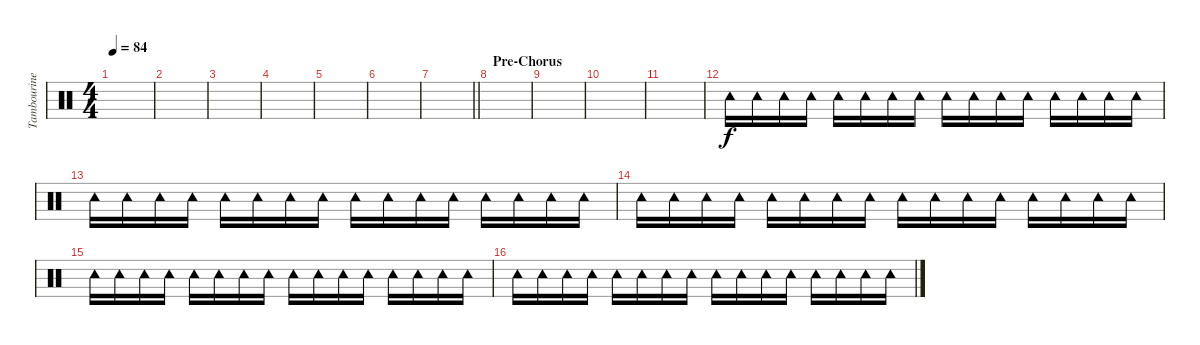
\track ("Tambourine" "Tambourine") {instrument percussion}
\staff {score}
\articulation defaults
\ts (4 4)
\tempo 84
\clef neutral
\ks c
|
|
|
|
|
|
\barLineRight lightlight
|
\section ("" "Pre-Chorus")
|
|
|
|
"Tambourine (hit)".16 "Tambourine (hit)".16 "Tambourine (hit)".16 "Tambourine (hit)".16 "Tambourine (hit)".16 "Tambourine (hit)".16 "Tambourine (hit)".16 "Tambourine (hit)".16 "Tambourine (hit)".16 "Tambourine (hit)".16 "Tambourine (hit)".16 "Tambourine (hit)".16 "Tambourine (hit)".16 "Tambourine (hit)".16 "Tambourine (hit)".16 "Tambourine (hit)".16 |
"Tambourine (hit)".16 "Tambourine (hit)".16 "Tambourine (hit)".16 "Tambourine (hit)".16 "Tambourine (hit)".16 "Tambourine (hit)".16 "Tambourine (hit)".16 "Tambourine (hit)".16 "Tambourine (hit)".16 "Tambourine (hit)".16 "Tambourine (hit)".16 "Tambourine (hit)".16 "Tambourine (hit)".16 "Tambourine (hit)".16 "Tambourine (hit)".16 "Tambourine (hit)".16 |
"Tambourine (hit)".16 "Tambourine (hit)".16 "Tambourine (hit)".16 "Tambourine (hit)".16 "Tambourine (hit)".16 "Tambourine (hit)".16 "Tambourine (hit)".16 "Tambourine (hit)".16 "Tambourine (hit)".16 "Tambourine (hit)".16 "Tambourine (hit)".16 "Tambourine (hit)".16 "Tambourine (hit)".16 "Tambourine (hit)".16 "Tambourine (hit)".16 "Tambourine (hit)".16 |
"Tambourine (hit)".16 "Tambourine (hit)".16 "Tambourine (hit)".16 "Tambourine (hit)".16 "Tambourine (hit)".16 "Tambourine (hit)".16 "Tambourine (hit)".16 "Tambourine (hit)".16 "Tambourine (hit)".16 "Tambourine (hit)".16 "Tambourine (hit)".16 "Tambourine (hit)".16 "Tambourine (hit)".16 "Tambourine (hit)".16 "Tambourine (hit)".16 "Tambourine (hit)".16 |
"Tambourine (hit)".16 "Tambourine (hit)".16 "Tambourine (hit)".16 "Tambourine (hit)".16 "Tambourine (hit)".16 "Tambourine (hit)".16 "Tambourine (hit)".16 "Tambourine (hit)".16 "Tambourine (hit)".16 "Tambourine (hit)".16 "Tambourine (hit)".16 "Tambourine (hit)".16 "Tambourine (hit)".16 "Tambourine (hit)".16 "Tambourine (hit)".16 "Tambourine (hit)".16
